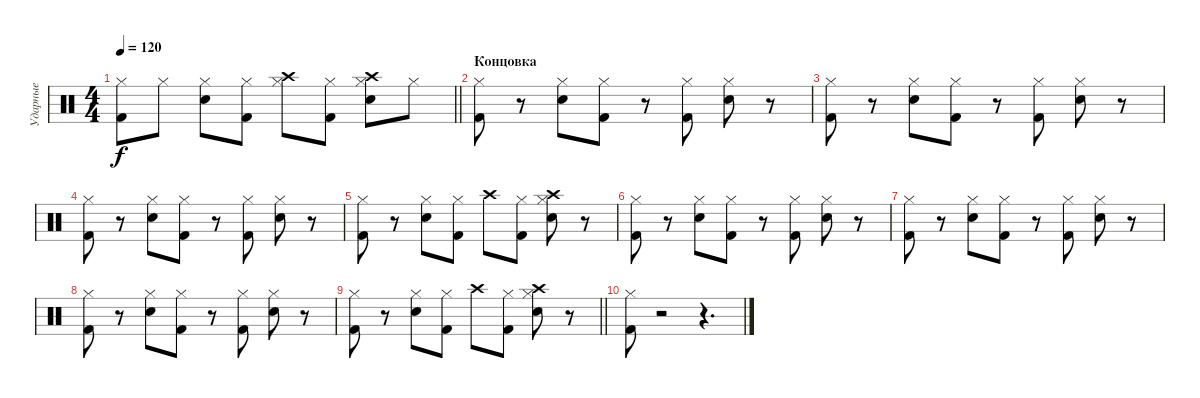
\track ("Ударные" "Ударные") {instrument percussion}
\staff {score}
\articulation defaults
\ts (4 4)
\tempo 120
\clef neutral
\barLineRight lightlight
\ks c
("Kick (hit) 2" "Hi-Hat (closed)").8{dy f} "Hi-Hat (closed)".8 ("Snare (hit) 2" "Hi-Hat (closed)").8 ("Kick (hit) 2" "Hi-Hat (closed)").8 ("Hi-Hat (closed)" "Crash high (hit)").8 ("Kick (hit) 2" "Hi-Hat (closed)").8 ("Snare (hit) 2" "Hi-Hat (closed)" "Crash high (hit)").8 "Hi-Hat (closed)".8 |
\section ("" "Концовка")
("Kick (hit) 2" "Hi-Hat (closed)").8 r.8 ("Snare (hit) 2" "Hi-Hat (closed)").8 ("Kick (hit) 2" "Hi-Hat (closed)").8 r.8 ("Kick (hit) 2" "Hi-Hat (closed)").8 ("Snare (hit) 2" "Hi-Hat (closed)").8 r.8 |
("Kick (hit) 2" "Hi-Hat (closed)").8 r.8 ("Snare (hit) 2" "Hi-Hat (closed)").8 ("Kick (hit) 2" "Hi-Hat (closed)").8 r.8 ("Kick (hit) 2" "Hi-Hat (closed)").8 ("Snare (hit) 2" "Hi-Hat (closed)").8 r.8 |
("Kick (hit) 2" "Hi-Hat (closed)").8 r.8 ("Snare (hit) 2" "Hi-Hat (closed)").8 ("Kick (hit) 2" "Hi-Hat (closed)").8 r.8 ("Kick (hit) 2" "Hi-Hat (closed)").8 ("Snare (hit) 2" "Hi-Hat (closed)").8 r.8 |
("Kick (hit) 2" "Hi-Hat (closed)").8 r.8 ("Snare (hit) 2" "Hi-Hat (closed)").8 ("Kick (hit) 2" "Hi-Hat (closed)").8 "Crash high (hit)".8 ("Kick (hit) 2" "Hi-Hat (closed)").8 ("Snare (hit) 2" "Hi-Hat (closed)" "Crash high (hit)").8 r.8 |
("Kick (hit) 2" "Hi-Hat (closed)").8 r.8 ("Snare (hit) 2" "Hi-Hat (closed)").8 ("Kick (hit) 2" "Hi-Hat (closed)").8 r.8 ("Kick (hit) 2" "Hi-Hat (closed)").8 ("Snare (hit) 2" "Hi-Hat (closed)").8 r.8 |
("Kick (hit) 2" "Hi-Hat (closed)").8 r.8 ("Snare (hit) 2" "Hi-Hat (closed)").8 ("Kick (hit) 2" "Hi-Hat (closed)").8 r.8 ("Kick (hit) 2" "Hi-Hat (closed)").8 ("Snare (hit) 2" "Hi-Hat (closed)").8 r.8 |
("Kick (hit) 2" "Hi-Hat (closed)").8 r.8 ("Snare (hit) 2" "Hi-Hat (closed)").8 ("Kick (hit) 2" "Hi-Hat (closed)").8 r.8 ("Kick (hit) 2" "Hi-Hat (closed)").8 ("Snare (hit) 2" "Hi-Hat (closed)").8 r.8 |
\barLineRight lightlight
("Kick (hit) 2" "Hi-Hat (closed)").8 r.8 ("Snare (hit) 2" "Hi-Hat (closed)").8 ("Kick (hit) 2" "Hi-Hat (closed)").8 "Crash high (hit)".8 ("Kick (hit) 2" "Hi-Hat (closed)").8 ("Snare (hit) 2" "Hi-Hat (closed)" "Crash high (hit)").8 r.8 |
("Hi-Hat (closed)" "Kick (hit) 2").8 r.2 r.4{d}
